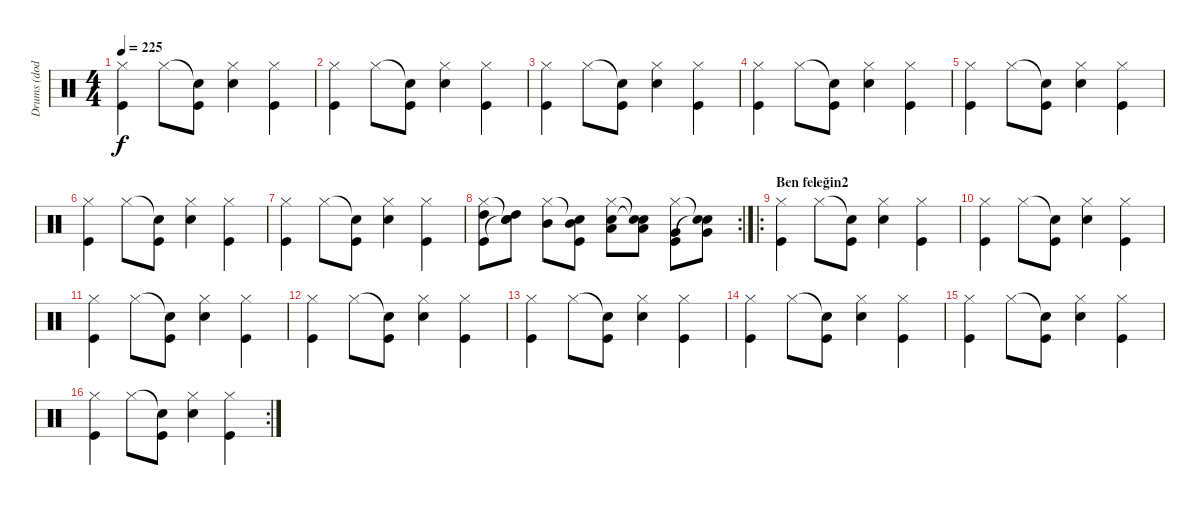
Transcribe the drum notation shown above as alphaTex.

\track ("Drums (dodo)" "Drums (dod") {instrument percussion}
\staff {score}
\articulation defaults
\ts (4 4)
\tempo 225
\clef neutral
\ks c
("Hi-Hat (closed)" "Kick (hit)").4{dy f} "Hi-Hat (closed)".8 ("Snare (hit)"{t} "Kick (hit)").8 ("Hi-Hat (closed)" "Electric Snare (hit)").4 ("Hi-Hat (closed)" "Kick (hit)").4 |
("Hi-Hat (closed)" "Kick (hit)").4 "Hi-Hat (closed)".8 ("Snare (hit)"{t} "Kick (hit)").8 ("Hi-Hat (closed)" "Electric Snare (hit)").4 ("Hi-Hat (closed)" "Kick (hit)").4 |
("Hi-Hat (closed)" "Kick (hit)").4 "Hi-Hat (closed)".8 ("Snare (hit)"{t} "Kick (hit)").8 ("Hi-Hat (closed)" "Electric Snare (hit)").4 ("Hi-Hat (closed)" "Kick (hit)").4 |
("Hi-Hat (closed)" "Kick (hit)").4 "Hi-Hat (closed)".8 ("Snare (hit)"{t} "Kick (hit)").8 ("Hi-Hat (closed)" "Electric Snare (hit)").4 ("Hi-Hat (closed)" "Kick (hit)").4 |
("Hi-Hat (closed)" "Kick (hit)").4 "Hi-Hat (closed)".8 ("Snare (hit)"{t} "Kick (hit)").8 ("Hi-Hat (closed)" "Electric Snare (hit)").4 ("Hi-Hat (closed)" "Kick (hit)").4 |
("Hi-Hat (closed)" "Kick (hit)").4 "Hi-Hat (closed)".8 ("Snare (hit)"{t} "Kick (hit)").8 ("Hi-Hat (closed)" "Electric Snare (hit)").4 ("Hi-Hat (closed)" "Kick (hit)").4 |
("Hi-Hat (closed)" "Kick (hit)").4 "Hi-Hat (closed)".8 ("Snare (hit)"{t} "Kick (hit)").8 ("Hi-Hat (closed)" "Electric Snare (hit)").4 ("Hi-Hat (closed)" "Kick (hit)").4 |
\rc 2
("Hi-Hat (closed)" "Kick (hit)" "High Tom (hit)").8 ("Snare (hit)"{t} "Snare (hit)"{t} "High Tom (hit)").8 ("Hi-Hat (closed)" "Mid Tom (hit)").8 ("Snare (hit)"{t} "Kick (hit)" "Mid Tom (hit)").8 ("Hi-Hat (closed)" "Electric Snare (hit)" "Low Tom (hit)").8 ("Snare (hit)"{t} "Snare (hit)"{t} "Low Tom (hit)").8 ("Hi-Hat (closed)" "Kick (hit)" "Very Low Tom (hit)").8 ("Snare (hit)"{t} "Snare (hit)"{t} "Very Low Tom (hit)").8 |
\ro
\section ("" "Ben feleğin2")
("Hi-Hat (closed)" "Kick (hit)").4 "Hi-Hat (closed)".8 ("Snare (hit)"{t} "Kick (hit)").8 ("Hi-Hat (closed)" "Electric Snare (hit)").4 ("Hi-Hat (closed)" "Kick (hit)").4 |
("Hi-Hat (closed)" "Kick (hit)").4 "Hi-Hat (closed)".8 ("Snare (hit)"{t} "Kick (hit)").8 ("Hi-Hat (closed)" "Electric Snare (hit)").4 ("Hi-Hat (closed)" "Kick (hit)").4 |
("Hi-Hat (closed)" "Kick (hit)").4 "Hi-Hat (closed)".8 ("Snare (hit)"{t} "Kick (hit)").8 ("Hi-Hat (closed)" "Electric Snare (hit)").4 ("Hi-Hat (closed)" "Kick (hit)").4 |
("Hi-Hat (closed)" "Kick (hit)").4 "Hi-Hat (closed)".8 ("Snare (hit)"{t} "Kick (hit)").8 ("Hi-Hat (closed)" "Electric Snare (hit)").4 ("Hi-Hat (closed)" "Kick (hit)").4 |
("Hi-Hat (closed)" "Kick (hit)").4 "Hi-Hat (closed)".8 ("Snare (hit)"{t} "Kick (hit)").8 ("Hi-Hat (closed)" "Electric Snare (hit)").4 ("Hi-Hat (closed)" "Kick (hit)").4 |
("Hi-Hat (closed)" "Kick (hit)").4 "Hi-Hat (closed)".8 ("Snare (hit)"{t} "Kick (hit)").8 ("Hi-Hat (closed)" "Electric Snare (hit)").4 ("Hi-Hat (closed)" "Kick (hit)").4 |
("Hi-Hat (closed)" "Kick (hit)").4 "Hi-Hat (closed)".8 ("Snare (hit)"{t} "Kick (hit)").8 ("Hi-Hat (closed)" "Electric Snare (hit)").4 ("Hi-Hat (closed)" "Kick (hit)").4 |
\rc 2
("Hi-Hat (closed)" "Kick (hit)").4 "Hi-Hat (closed)".8 ("Snare (hit)"{t} "Kick (hit)").8 ("Hi-Hat (closed)" "Electric Snare (hit)").4 ("Hi-Hat (closed)" "Kick (hit)").4
